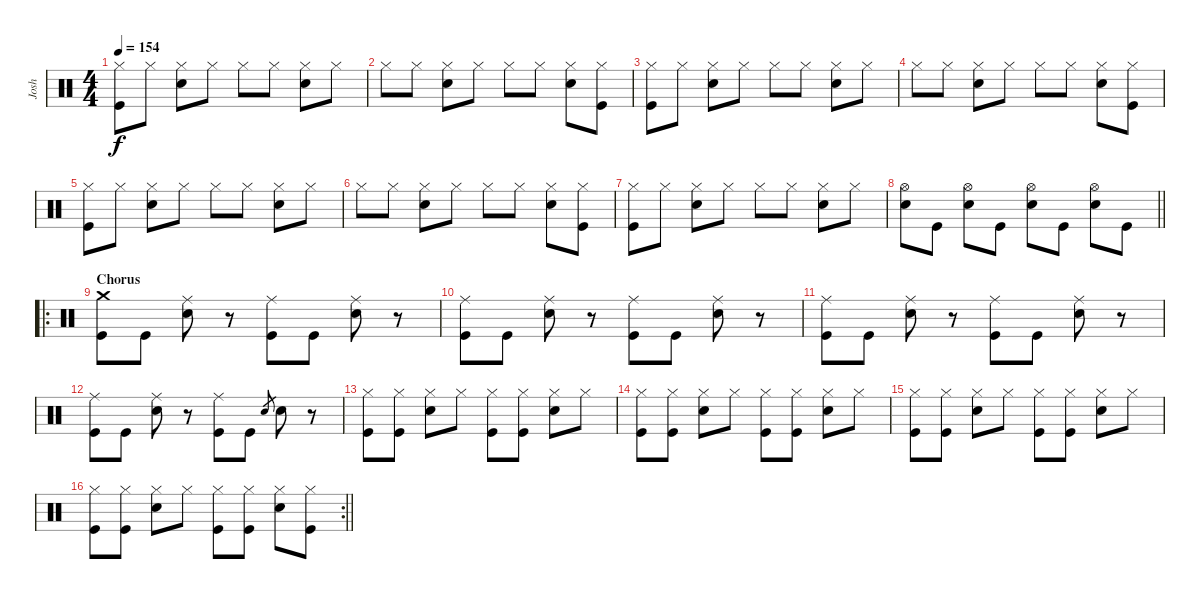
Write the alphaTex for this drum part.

\track ("Josh" "Josh") {instrument percussion}
\staff {score}
\articulation defaults
\ts (4 4)
\tempo 154
\clef neutral
\ks c
("Hi-Hat (closed)" "Kick (hit)").8{dy f} "Hi-Hat (closed)".8 ("Hi-Hat (closed)" "Snare (hit) 2").8 "Hi-Hat (closed)".8 "Hi-Hat (closed)".8 "Hi-Hat (closed)".8 ("Hi-Hat (closed)" "Snare (hit) 2").8 "Hi-Hat (closed)".8 |
"Hi-Hat (closed)".8 "Hi-Hat (closed)".8 ("Hi-Hat (closed)" "Snare (hit) 2").8 "Hi-Hat (closed)".8 "Hi-Hat (closed)".8 "Hi-Hat (closed)".8 ("Hi-Hat (closed)" "Snare (hit) 2").8 ("Hi-Hat (closed)" "Kick (hit)").8 |
("Hi-Hat (closed)" "Kick (hit)").8 "Hi-Hat (closed)".8 ("Hi-Hat (closed)" "Snare (hit) 2").8 "Hi-Hat (closed)".8 "Hi-Hat (closed)".8 "Hi-Hat (closed)".8 ("Hi-Hat (closed)" "Snare (hit) 2").8 "Hi-Hat (closed)".8 |
"Hi-Hat (closed)".8 "Hi-Hat (closed)".8 ("Hi-Hat (closed)" "Snare (hit) 2").8 "Hi-Hat (closed)".8 "Hi-Hat (closed)".8 "Hi-Hat (closed)".8 ("Hi-Hat (closed)" "Snare (hit) 2").8 ("Hi-Hat (closed)" "Kick (hit)").8 |
("Hi-Hat (closed)" "Kick (hit)").8 "Hi-Hat (closed)".8 ("Hi-Hat (closed)" "Snare (hit) 2").8 "Hi-Hat (closed)".8 "Hi-Hat (closed)".8 "Hi-Hat (closed)".8 ("Hi-Hat (closed)" "Snare (hit) 2").8 "Hi-Hat (closed)".8 |
"Hi-Hat (closed)".8 "Hi-Hat (closed)".8 ("Hi-Hat (closed)" "Snare (hit) 2").8 "Hi-Hat (closed)".8 "Hi-Hat (closed)".8 "Hi-Hat (closed)".8 ("Hi-Hat (closed)" "Snare (hit) 2").8 ("Hi-Hat (closed)" "Kick (hit)").8 |
("Hi-Hat (closed)" "Kick (hit)").8 "Hi-Hat (closed)".8 ("Hi-Hat (closed)" "Snare (hit) 2").8 "Hi-Hat (closed)".8 "Hi-Hat (closed)".8 "Hi-Hat (closed)".8 ("Hi-Hat (closed)" "Snare (hit) 2").8 "Hi-Hat (closed)".8 |
\barLineRight lightlight
("Hi-Hat (open)" "Snare (hit) 2").8 "Kick (hit)".8 ("Hi-Hat (open)" "Snare (hit) 2").8 "Kick (hit)".8 ("Hi-Hat (open)" "Snare (hit) 2").8 "Kick (hit)".8 ("Hi-Hat (open)" "Snare (hit) 2").8 "Kick (hit)".8 |
\ro
\section ("" "Chorus")
("Crash medium (hit)" "Kick (hit)").8 "Kick (hit)".8 ("Ride (middle)" "Snare (hit) 2").8 r.8 ("Ride (middle)" "Kick (hit)").8 "Kick (hit)".8 ("Ride (middle)" "Snare (hit) 2").8 r.8 |
("Ride (middle)" "Kick (hit)").8 "Kick (hit)".8 ("Ride (middle)" "Snare (hit) 2").8 r.8 ("Ride (middle)" "Kick (hit)").8 "Kick (hit)".8 ("Ride (middle)" "Snare (hit) 2").8 r.8 |
("Ride (middle)" "Kick (hit)").8 "Kick (hit)".8 ("Ride (middle)" "Snare (hit) 2").8 r.8 ("Ride (middle)" "Kick (hit)").8 "Kick (hit)".8 ("Ride (middle)" "Snare (hit) 2").8 r.8 |
("Ride (middle)" "Kick (hit)").8 "Kick (hit)".8 ("Ride (middle)" "Snare (hit) 2").8 r.8 ("Ride (middle)" "Kick (hit)").8 "Kick (hit)".8 "Snare (hit) 2".8{gr} "Snare (hit) 2".8 r.8 |
("Hi-Hat (closed)" "Kick (hit)").8 ("Hi-Hat (closed)" "Kick (hit)").8 ("Hi-Hat (closed)" "Snare (hit) 2").8 "Hi-Hat (closed)".8 ("Hi-Hat (closed)" "Kick (hit)").8 ("Hi-Hat (closed)" "Kick (hit)").8 ("Hi-Hat (closed)" "Snare (hit) 2").8 "Hi-Hat (closed)".8 |
("Hi-Hat (closed)" "Kick (hit)").8 ("Hi-Hat (closed)" "Kick (hit)").8 ("Hi-Hat (closed)" "Snare (hit) 2").8 "Hi-Hat (closed)".8 ("Hi-Hat (closed)" "Kick (hit)").8 ("Hi-Hat (closed)" "Kick (hit)").8 ("Hi-Hat (closed)" "Snare (hit) 2").8 "Hi-Hat (closed)".8 |
("Hi-Hat (closed)" "Kick (hit)").8 ("Hi-Hat (closed)" "Kick (hit)").8 ("Hi-Hat (closed)" "Snare (hit) 2").8 "Hi-Hat (closed)".8 ("Hi-Hat (closed)" "Kick (hit)").8 ("Hi-Hat (closed)" "Kick (hit)").8 ("Hi-Hat (closed)" "Snare (hit) 2").8 "Hi-Hat (closed)".8 |
\rc 2
\barLineRight lightlight
("Hi-Hat (closed)" "Kick (hit)").8 ("Hi-Hat (closed)" "Kick (hit)").8 ("Hi-Hat (closed)" "Snare (hit) 2").8 "Hi-Hat (closed)".8 ("Hi-Hat (closed)" "Kick (hit)").8 ("Hi-Hat (closed)" "Kick (hit)").8 ("Hi-Hat (closed)" "Snare (hit) 2").8 ("Hi-Hat (closed)" "Kick (hit)").8
